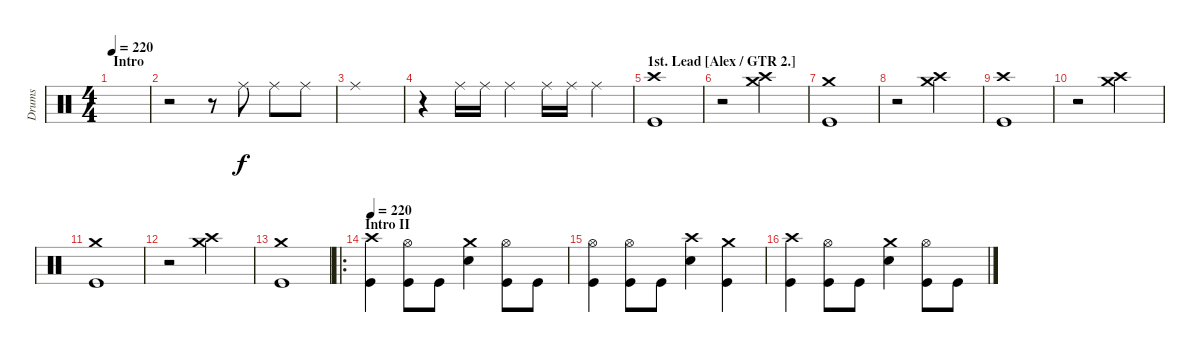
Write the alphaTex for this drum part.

\track ("Drums" "Drums") {instrument percussion}
\staff {score}
\articulation defaults
\ts (4 4)
\section ("" "Intro")
\tempo 220
\tempo 96
\tempo 220
\clef neutral
\ks c
|
r.2 r.8 "Ride (middle)".8 "Ride (middle)".8 "Ride (middle)".8 |
"Ride (middle)".1 |
r.4 "Ride (middle)".16 "Ride (middle)".16 "Ride (middle)".4 "Ride (middle)".16 "Ride (middle)".16 "Ride (middle)".4 |
\section ("" "1st. Lead [Alex / GTR 2.]")
("Crash high (hit)" "Kick (hit)").1 |
r.2{volume 0} ("Crash medium (hit)" "Crash high (hit)").2{volume 13} |
("Crash medium (hit)" "Kick (hit)").1 |
r.2{volume 0} ("Crash medium (hit)" "Crash high (hit)").2{volume 13} |
("Crash high (hit)" "Kick (hit)").1 |
r.2{volume 0} ("Crash medium (hit)" "Crash high (hit)").2{volume 13} |
("Crash medium (hit)" "Kick (hit)").1 |
r.2{volume 0} ("Crash medium (hit)" "Crash high (hit)").2{volume 13} |
("Crash medium (hit)" "Kick (hit)").1 |
\ro
\section ("" "Intro II")
\tempo 220
("Crash high (hit)" "Kick (hit)").4 ("Hi-Hat (open)" "Kick (hit)").8 "Kick (hit)".8 ("Crash medium (hit)" "Snare (hit) 2").4 ("Hi-Hat (open)" "Kick (hit)").8 "Kick (hit)".8 |
("Hi-Hat (open)" "Kick (hit)").4 ("Hi-Hat (open)" "Kick (hit)").8 "Kick (hit)".8 ("Crash high (hit)" "Snare (hit) 2").4 ("Crash medium (hit)" "Kick (hit)").4 |
("Crash high (hit)" "Kick (hit)").4 ("Hi-Hat (open)" "Kick (hit)").8 "Kick (hit)".8 ("Crash medium (hit)" "Snare (hit) 2").4 ("Hi-Hat (open)" "Kick (hit)").8 "Kick (hit)".8
